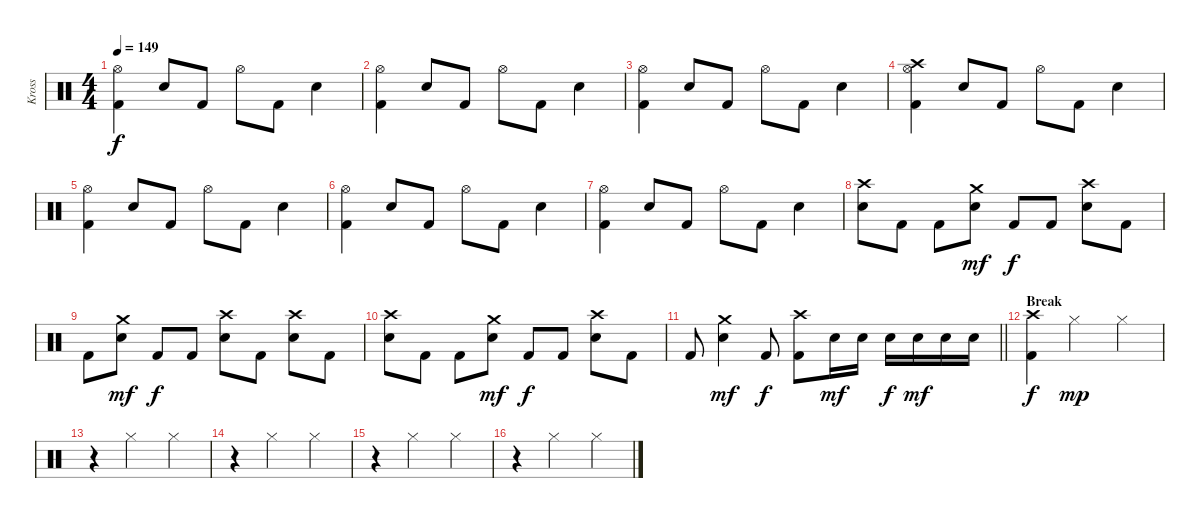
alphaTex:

\track ("Kross" "Kross") {instrument percussion}
\staff {score}
\articulation defaults
\ts (4 4)
\tempo 149
\clef neutral
\ks c
("Hi-Hat (open)" "Kick (hit) 2").4{dy f} "Electric Snare (hit)".8 "Kick (hit) 2".8 "Hi-Hat (open)".8 "Kick (hit) 2".8 "Electric Snare (hit)".4 |
("Hi-Hat (open)" "Kick (hit) 2").4 "Electric Snare (hit)".8 "Kick (hit) 2".8 "Hi-Hat (open)".8 "Kick (hit) 2".8 "Electric Snare (hit)".4 |
("Hi-Hat (open)" "Kick (hit) 2").4 "Electric Snare (hit)".8 "Kick (hit) 2".8 "Hi-Hat (open)".8 "Kick (hit) 2".8 "Electric Snare (hit)".4 |
("Crash high (hit)" "Hi-Hat (open)" "Kick (hit) 2").4 "Electric Snare (hit)".8 "Kick (hit) 2".8 "Hi-Hat (open)".8 "Kick (hit) 2".8 "Electric Snare (hit)".4 |
("Hi-Hat (open)" "Kick (hit) 2").4 "Electric Snare (hit)".8 "Kick (hit) 2".8 "Hi-Hat (open)".8 "Kick (hit) 2".8 "Electric Snare (hit)".4 |
("Hi-Hat (open)" "Kick (hit) 2").4 "Electric Snare (hit)".8 "Kick (hit) 2".8 "Hi-Hat (open)".8 "Kick (hit) 2".8 "Electric Snare (hit)".4 |
("Hi-Hat (open)" "Kick (hit) 2").4 "Electric Snare (hit)".8 "Kick (hit) 2".8 "Hi-Hat (open)".8 "Kick (hit) 2".8 "Electric Snare (hit)".4 |
("Crash high (hit)" "Electric Snare (hit)").8 "Kick (hit) 2".8 "Kick (hit) 2".8 ("Crash medium (hit)" "Electric Snare (hit)").8{dy mf} "Kick (hit) 2".8{dy f} "Kick (hit) 2".8 ("Crash high (hit)" "Electric Snare (hit)").8 "Kick (hit) 2".8 |
"Kick (hit) 2".8 ("Crash medium (hit)" "Electric Snare (hit)").8{dy mf} "Kick (hit) 2".8{dy f} "Kick (hit) 2".8 ("Crash high (hit)" "Electric Snare (hit)").8 "Kick (hit) 2".8 ("Crash high (hit)" "Electric Snare (hit)").8 "Kick (hit) 2".8 |
("Crash high (hit)" "Electric Snare (hit)").8 "Kick (hit) 2".8 "Kick (hit) 2".8 ("Crash medium (hit)" "Electric Snare (hit)").8{dy mf} "Kick (hit) 2".8{dy f} "Kick (hit) 2".8 ("Crash high (hit)" "Electric Snare (hit)").8 "Kick (hit) 2".8 |
\barLineRight lightlight "Kick (hit) 2".8
("Crash medium (hit)" "Electric Snare (hit)").4{dy mf} "Kick (hit) 2".8{dy f} ("Crash high (hit)" "Kick (hit) 2").8 "Electric Snare (hit)".16{dy mf} "Electric Snare (hit)".16 "Electric Snare (hit)".16{dy f} "Electric Snare (hit)".16{dy mf} "Electric Snare (hit)".16 "Electric Snare (hit)".16 |
\section ("" "Break")
("Crash high (hit)" "Kick (hit) 2").4{dy f} "Hi-Hat (closed)".2{dy mp} "Hi-Hat (closed)".4 |
r.4 "Hi-Hat (closed)".2 "Hi-Hat (closed)".4 |
r.4 "Hi-Hat (closed)".2 "Hi-Hat (closed)".4 |
r.4 "Hi-Hat (closed)".2 "Hi-Hat (closed)".4 |
r.4 "Hi-Hat (closed)".2 "Hi-Hat (closed)".4
